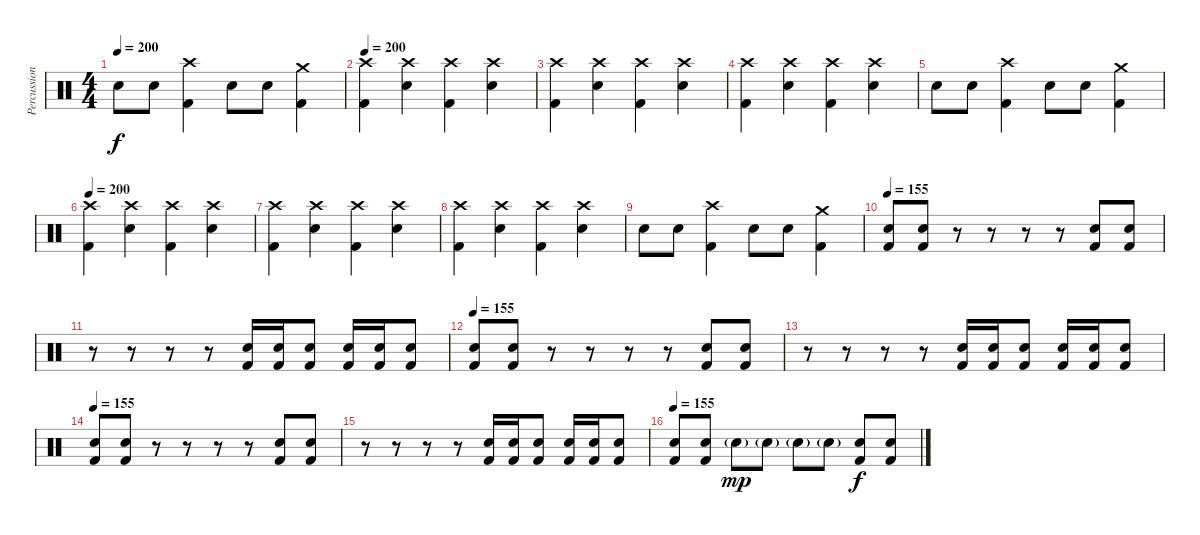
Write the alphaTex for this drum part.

\track ("Percussion" "Percussion") {instrument percussion}
\staff {score}
\articulation defaults
\ts (4 4)
\tempo 200
\clef neutral
\ks c "Electric Snare (hit)".8{dy f} "Electric Snare (hit)".8
("Crash high (hit)" "Kick (hit) 2").4 "Electric Snare (hit)".8 "Electric Snare (hit)".8 ("Crash medium (hit)" "Kick (hit) 2").4 |
\tempo 200
("Crash high (hit)" "Kick (hit) 2").4 ("Crash high (hit)" "Electric Snare (hit)").4 ("Crash high (hit)" "Kick (hit) 2").4 ("Crash high (hit)" "Electric Snare (hit)").4 |
("Crash high (hit)" "Kick (hit) 2").4 ("Crash high (hit)" "Electric Snare (hit)").4 ("Crash high (hit)" "Kick (hit) 2").4 ("Crash high (hit)" "Electric Snare (hit)").4 |
("Crash high (hit)" "Kick (hit) 2").4 ("Crash high (hit)" "Electric Snare (hit)").4 ("Crash high (hit)" "Kick (hit) 2").4 ("Crash high (hit)" "Electric Snare (hit)").4 |
"Electric Snare (hit)".8 "Electric Snare (hit)".8 ("Crash high (hit)" "Kick (hit) 2").4 "Electric Snare (hit)".8 "Electric Snare (hit)".8 ("Crash medium (hit)" "Kick (hit) 2").4 |
\tempo 200
("Crash high (hit)" "Kick (hit) 2").4 ("Crash high (hit)" "Electric Snare (hit)").4 ("Crash high (hit)" "Kick (hit) 2").4 ("Crash high (hit)" "Electric Snare (hit)").4 |
("Crash high (hit)" "Kick (hit) 2").4 ("Crash high (hit)" "Electric Snare (hit)").4 ("Crash high (hit)" "Kick (hit) 2").4 ("Crash high (hit)" "Electric Snare (hit)").4 |
("Crash high (hit)" "Kick (hit) 2").4 ("Crash high (hit)" "Electric Snare (hit)").4 ("Crash high (hit)" "Kick (hit) 2").4 ("Crash high (hit)" "Electric Snare (hit)").4 |
"Electric Snare (hit)".8 "Electric Snare (hit)".8 ("Crash high (hit)" "Kick (hit) 2").4 "Electric Snare (hit)".8 "Electric Snare (hit)".8 ("Crash medium (hit)" "Kick (hit) 2").4 |
\tempo 155
("Electric Snare (hit)" "Kick (hit) 2").8 ("Electric Snare (hit)" "Kick (hit) 2").8 r.8 r.8 r.8 r.8 ("Electric Snare (hit)" "Kick (hit) 2").8 ("Electric Snare (hit)" "Kick (hit) 2").8 |
r.8 r.8 r.8 r.8 ("Electric Snare (hit)" "Kick (hit) 2").16 ("Electric Snare (hit)" "Kick (hit) 2").16 ("Electric Snare (hit)" "Kick (hit) 2").8 ("Electric Snare (hit)" "Kick (hit) 2").16 ("Electric Snare (hit)" "Kick (hit) 2").16 ("Electric Snare (hit)" "Kick (hit) 2").8 |
\tempo 155
("Electric Snare (hit)" "Kick (hit) 2").8 ("Electric Snare (hit)" "Kick (hit) 2").8 r.8 r.8 r.8 r.8 ("Electric Snare (hit)" "Kick (hit) 2").8 ("Electric Snare (hit)" "Kick (hit) 2").8 |
r.8 r.8 r.8 r.8 ("Electric Snare (hit)" "Kick (hit) 2").16 ("Electric Snare (hit)" "Kick (hit) 2").16 ("Electric Snare (hit)" "Kick (hit) 2").8 ("Electric Snare (hit)" "Kick (hit) 2").16 ("Electric Snare (hit)" "Kick (hit) 2").16 ("Electric Snare (hit)" "Kick (hit) 2").8 |
\tempo 155
("Electric Snare (hit)" "Kick (hit) 2").8 ("Electric Snare (hit)" "Kick (hit) 2").8 r.8 r.8 r.8 r.8 ("Electric Snare (hit)" "Kick (hit) 2").8 ("Electric Snare (hit)" "Kick (hit) 2").8 |
r.8 r.8 r.8 r.8 ("Electric Snare (hit)" "Kick (hit) 2").16 ("Electric Snare (hit)" "Kick (hit) 2").16 ("Electric Snare (hit)" "Kick (hit) 2").8 ("Electric Snare (hit)" "Kick (hit) 2").16 ("Electric Snare (hit)" "Kick (hit) 2").16 ("Electric Snare (hit)" "Kick (hit) 2").8 |
\tempo 155
("Electric Snare (hit)" "Kick (hit) 2").8 ("Electric Snare (hit)" "Kick (hit) 2").8 "Electric Snare (hit)"{g}.8{dy mp} "Electric Snare (hit)"{g}.8 "Electric Snare (hit)"{g}.8 "Electric Snare (hit)"{g}.8 ("Electric Snare (hit)" "Kick (hit) 2").8{dy f} ("Electric Snare (hit)" "Kick (hit) 2").8
